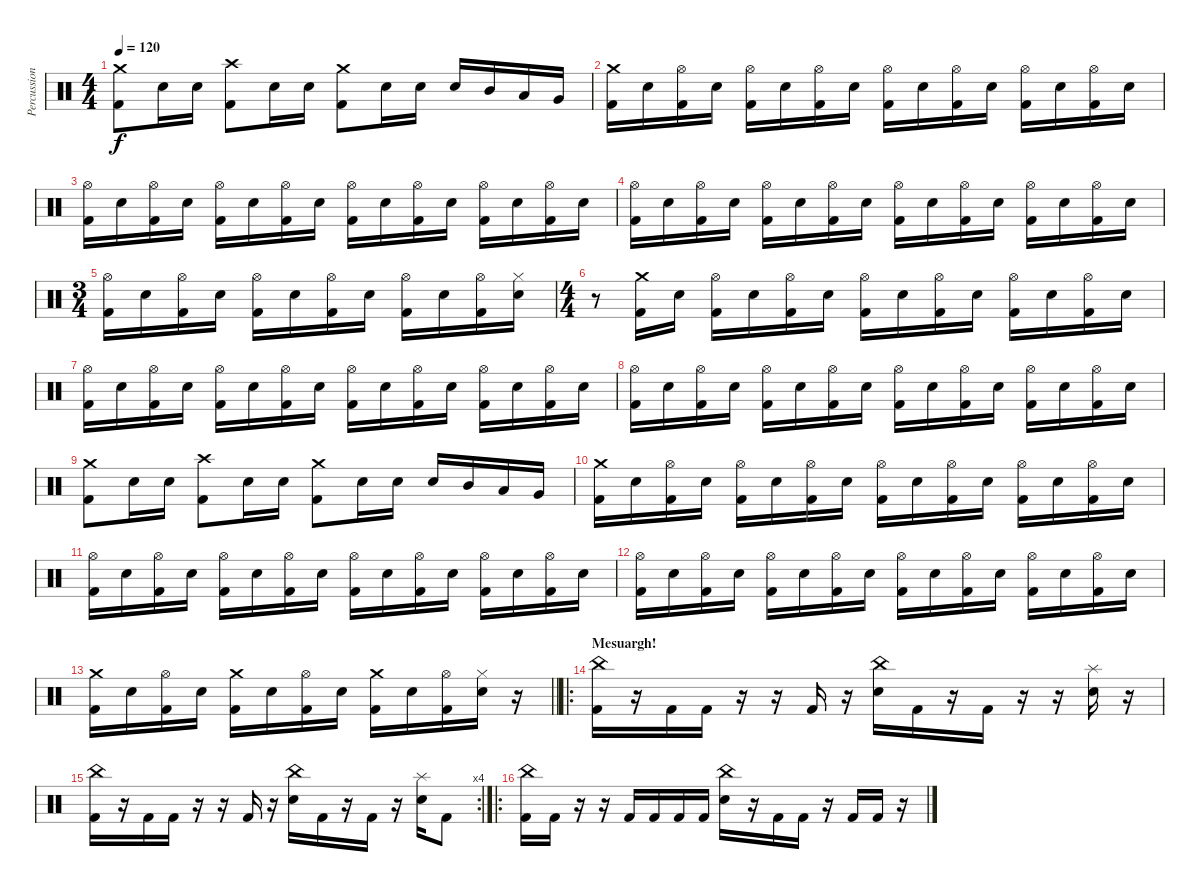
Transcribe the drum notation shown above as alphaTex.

\track ("Percussion" "Percussion") {instrument percussion}
\staff {score}
\articulation defaults
\ts (4 4)
\tempo 120
\clef neutral
\ks c
("Crash medium (hit)" "Kick (hit) 2").8{dy f} "Electric Snare (hit)".16 "Electric Snare (hit)".16 ("Crash high (hit)" "Kick (hit) 2").8 "Electric Snare (hit)".16 "Electric Snare (hit)".16 ("Crash medium (hit)" "Kick (hit) 2").8 "Electric Snare (hit)".16 "Electric Snare (hit)".16 "Electric Snare (hit)".16 "Mid Tom (hit)".16 "Low Tom (hit)".16 "Very Low Tom (hit)".16 |
("Crash medium (hit)" "Kick (hit) 2").16 "Electric Snare (hit)".16 ("Hi-Hat (open)" "Kick (hit) 2").16 "Electric Snare (hit)".16 ("Hi-Hat (open)" "Kick (hit) 2").16 "Electric Snare (hit)".16 ("Hi-Hat (open)" "Kick (hit) 2").16 "Electric Snare (hit)".16 ("Hi-Hat (open)" "Kick (hit) 2").16 "Electric Snare (hit)".16 ("Hi-Hat (open)" "Kick (hit) 2").16 "Electric Snare (hit)".16 ("Hi-Hat (open)" "Kick (hit) 2").16 "Electric Snare (hit)".16 ("Hi-Hat (open)" "Kick (hit) 2").16 "Electric Snare (hit)".16 |
("Hi-Hat (open)" "Kick (hit) 2").16 "Electric Snare (hit)".16 ("Hi-Hat (open)" "Kick (hit) 2").16 "Electric Snare (hit)".16 ("Hi-Hat (open)" "Kick (hit) 2").16 "Electric Snare (hit)".16 ("Hi-Hat (open)" "Kick (hit) 2").16 "Electric Snare (hit)".16 ("Hi-Hat (open)" "Kick (hit) 2").16 "Electric Snare (hit)".16 ("Hi-Hat (open)" "Kick (hit) 2").16 "Electric Snare (hit)".16 ("Hi-Hat (open)" "Kick (hit) 2").16 "Electric Snare (hit)".16 ("Hi-Hat (open)" "Kick (hit) 2").16 "Electric Snare (hit)".16 |
("Hi-Hat (open)" "Kick (hit) 2").16 "Electric Snare (hit)".16 ("Hi-Hat (open)" "Kick (hit) 2").16 "Electric Snare (hit)".16 ("Hi-Hat (open)" "Kick (hit) 2").16 "Electric Snare (hit)".16 ("Hi-Hat (open)" "Kick (hit) 2").16 "Electric Snare (hit)".16 ("Hi-Hat (open)" "Kick (hit) 2").16 "Electric Snare (hit)".16 ("Hi-Hat (open)" "Kick (hit) 2").16 "Electric Snare (hit)".16 ("Hi-Hat (open)" "Kick (hit) 2").16 "Electric Snare (hit)".16 ("Hi-Hat (open)" "Kick (hit) 2").16 "Electric Snare (hit)".16 |
\ts (3 4)
("Hi-Hat (open)" "Kick (hit) 2").16 "Electric Snare (hit)".16 ("Hi-Hat (open)" "Kick (hit) 2").16 "Electric Snare (hit)".16 ("Hi-Hat (open)" "Kick (hit) 2").16 "Electric Snare (hit)".16 ("Hi-Hat (open)" "Kick (hit) 2").16 "Electric Snare (hit)".16 ("Hi-Hat (open)" "Kick (hit) 2").16 "Electric Snare (hit)".16 ("Hi-Hat (open)" "Kick (hit) 2").16 ("Hi-Hat (closed)" "Electric Snare (hit)").16 |
\ts (4 4)
r.8 ("Crash medium (hit)" "Kick (hit) 2").16 "Electric Snare (hit)".16 ("Hi-Hat (open)" "Kick (hit) 2").16 "Electric Snare (hit)".16 ("Hi-Hat (open)" "Kick (hit) 2").16 "Electric Snare (hit)".16 ("Hi-Hat (open)" "Kick (hit) 2").16 "Electric Snare (hit)".16 ("Hi-Hat (open)" "Kick (hit) 2").16 "Electric Snare (hit)".16 ("Hi-Hat (open)" "Kick (hit) 2").16 "Electric Snare (hit)".16 ("Hi-Hat (open)" "Kick (hit) 2").16 "Electric Snare (hit)".16 |
("Hi-Hat (open)" "Kick (hit) 2").16 "Electric Snare (hit)".16 ("Hi-Hat (open)" "Kick (hit) 2").16 "Electric Snare (hit)".16 ("Hi-Hat (open)" "Kick (hit) 2").16 "Electric Snare (hit)".16 ("Hi-Hat (open)" "Kick (hit) 2").16 "Electric Snare (hit)".16 ("Hi-Hat (open)" "Kick (hit) 2").16 "Electric Snare (hit)".16 ("Hi-Hat (open)" "Kick (hit) 2").16 "Electric Snare (hit)".16 ("Hi-Hat (open)" "Kick (hit) 2").16 "Electric Snare (hit)".16 ("Hi-Hat (open)" "Kick (hit) 2").16 "Electric Snare (hit)".16 |
("Hi-Hat (open)" "Kick (hit) 2").16 "Electric Snare (hit)".16 ("Hi-Hat (open)" "Kick (hit) 2").16 "Electric Snare (hit)".16 ("Hi-Hat (open)" "Kick (hit) 2").16 "Electric Snare (hit)".16 ("Hi-Hat (open)" "Kick (hit) 2").16 "Electric Snare (hit)".16 ("Hi-Hat (open)" "Kick (hit) 2").16 "Electric Snare (hit)".16 ("Hi-Hat (open)" "Kick (hit) 2").16 "Electric Snare (hit)".16 ("Hi-Hat (open)" "Kick (hit) 2").16 "Electric Snare (hit)".16 ("Hi-Hat (open)" "Kick (hit) 2").16 "Electric Snare (hit)".16 |
("Crash medium (hit)" "Kick (hit) 2").8 "Electric Snare (hit)".16 "Electric Snare (hit)".16 ("Crash high (hit)" "Kick (hit) 2").8 "Electric Snare (hit)".16 "Electric Snare (hit)".16 ("Crash medium (hit)" "Kick (hit) 2").8 "Electric Snare (hit)".16 "Electric Snare (hit)".16 "Electric Snare (hit)".16 "Mid Tom (hit)".16 "Low Tom (hit)".16 "Very Low Tom (hit)".16 |
("Crash medium (hit)" "Kick (hit) 2").16 "Electric Snare (hit)".16 ("Hi-Hat (open)" "Kick (hit) 2").16 "Electric Snare (hit)".16 ("Hi-Hat (open)" "Kick (hit) 2").16 "Electric Snare (hit)".16 ("Hi-Hat (open)" "Kick (hit) 2").16 "Electric Snare (hit)".16 ("Hi-Hat (open)" "Kick (hit) 2").16 "Electric Snare (hit)".16 ("Hi-Hat (open)" "Kick (hit) 2").16 "Electric Snare (hit)".16 ("Hi-Hat (open)" "Kick (hit) 2").16 "Electric Snare (hit)".16 ("Hi-Hat (open)" "Kick (hit) 2").16 "Electric Snare (hit)".16 |
("Hi-Hat (open)" "Kick (hit) 2").16 "Electric Snare (hit)".16 ("Hi-Hat (open)" "Kick (hit) 2").16 "Electric Snare (hit)".16 ("Hi-Hat (open)" "Kick (hit) 2").16 "Electric Snare (hit)".16 ("Hi-Hat (open)" "Kick (hit) 2").16 "Electric Snare (hit)".16 ("Hi-Hat (open)" "Kick (hit) 2").16 "Electric Snare (hit)".16 ("Hi-Hat (open)" "Kick (hit) 2").16 "Electric Snare (hit)".16 ("Hi-Hat (open)" "Kick (hit) 2").16 "Electric Snare (hit)".16 ("Hi-Hat (open)" "Kick (hit) 2").16 "Electric Snare (hit)".16 |
("Hi-Hat (open)" "Kick (hit) 2").16 "Electric Snare (hit)".16 ("Hi-Hat (open)" "Kick (hit) 2").16 "Electric Snare (hit)".16 ("Hi-Hat (open)" "Kick (hit) 2").16 "Electric Snare (hit)".16 ("Hi-Hat (open)" "Kick (hit) 2").16 "Electric Snare (hit)".16 ("Hi-Hat (open)" "Kick (hit) 2").16 "Electric Snare (hit)".16 ("Hi-Hat (open)" "Kick (hit) 2").16 "Electric Snare (hit)".16 ("Hi-Hat (open)" "Kick (hit) 2").16 "Electric Snare (hit)".16 ("Hi-Hat (open)" "Kick (hit) 2").16 "Electric Snare (hit)".16 |
\barLineRight lightlight
("Crash medium (hit)" "Kick (hit) 2").16 "Electric Snare (hit)".16 ("Hi-Hat (open)" "Kick (hit) 2").16 "Electric Snare (hit)".16 ("Crash medium (hit)" "Kick (hit) 2").16 "Electric Snare (hit)".16 ("Hi-Hat (open)" "Kick (hit) 2").16 "Electric Snare (hit)".16 ("Crash medium (hit)" "Kick (hit) 2").16 "Electric Snare (hit)".16 ("Hi-Hat (open)" "Kick (hit) 2").16 ("Hi-Hat (closed)" "Electric Snare (hit)").16 r.16 |
\ro
\section ("" "Mesuargh!")
("China (hit)" "Kick (hit) 2").16 r.16 "Kick (hit) 2".16 "Kick (hit) 2".16 r.16 r.16 "Kick (hit) 2".16 r.16 ("China (hit)" "Electric Snare (hit)").16 "Kick (hit) 2".16 r.16 "Kick (hit) 2".16 r.16 r.16 ("Splash (hit)" "Electric Snare (hit)").16 r.16 |
\rc 4
("China (hit)" "Kick (hit) 2").16 r.16 "Kick (hit) 2".16 "Kick (hit) 2".16 r.16 r.16 "Kick (hit) 2".16 r.16 ("China (hit)" "Electric Snare (hit)").16 "Kick (hit) 2".16 r.16 "Kick (hit) 2".16 r.16 ("Splash (hit)" "Electric Snare (hit)").16 "Kick (hit) 2".8 |
\ro
("China (hit)" "Kick (hit) 2").16 "Kick (hit) 2".16 r.16 r.16 "Kick (hit) 2".16 "Kick (hit) 2".16 "Kick (hit) 2".16 "Kick (hit) 2".16 ("China (hit)" "Electric Snare (hit)").16 r.16 "Kick (hit) 2".16 "Kick (hit) 2".16 r.16 "Kick (hit) 2".16 "Kick (hit) 2".16 r.16
